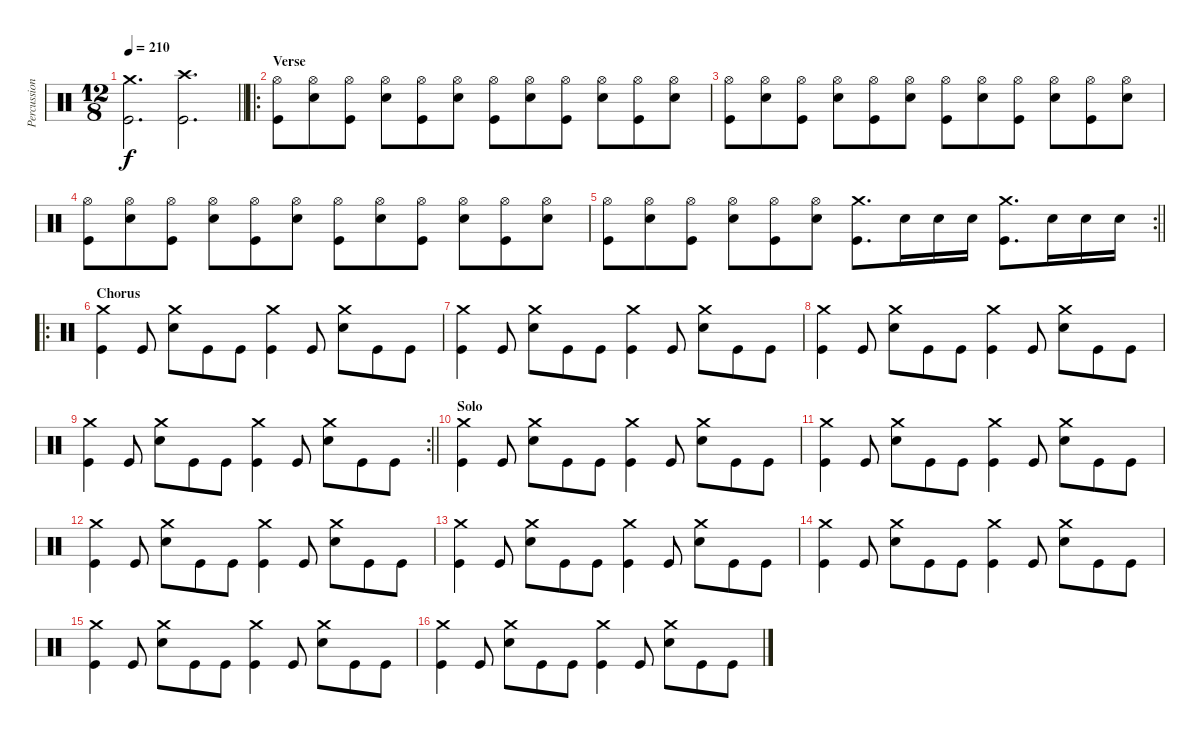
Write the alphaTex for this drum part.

\track ("Percussion" "Percussion") {instrument percussion}
\staff {score}
\articulation defaults
\ts (12 8)
\tempo 210
\clef neutral
\barLineRight lightlight
\ks c
("Crash medium (hit)" "Kick (hit)").2{d dy f} ("Crash high (hit)" "Kick (hit)").2{d} |
\ro
\section ("" "Verse")
("Hi-Hat (open)" "Kick (hit)").8 ("Hi-Hat (open)" "Snare (hit) 2").8 ("Hi-Hat (open)" "Kick (hit)").8 ("Hi-Hat (open)" "Snare (hit) 2").8 ("Hi-Hat (open)" "Kick (hit)").8 ("Hi-Hat (open)" "Snare (hit) 2").8 ("Hi-Hat (open)" "Kick (hit)").8 ("Hi-Hat (open)" "Snare (hit) 2").8 ("Hi-Hat (open)" "Kick (hit)").8 ("Hi-Hat (open)" "Snare (hit) 2").8 ("Hi-Hat (open)" "Kick (hit)").8 ("Hi-Hat (open)" "Snare (hit) 2").8 |
("Hi-Hat (open)" "Kick (hit)").8 ("Hi-Hat (open)" "Snare (hit) 2").8 ("Hi-Hat (open)" "Kick (hit)").8 ("Hi-Hat (open)" "Snare (hit) 2").8 ("Hi-Hat (open)" "Kick (hit)").8 ("Hi-Hat (open)" "Snare (hit) 2").8 ("Hi-Hat (open)" "Kick (hit)").8 ("Hi-Hat (open)" "Snare (hit) 2").8 ("Hi-Hat (open)" "Kick (hit)").8 ("Hi-Hat (open)" "Snare (hit) 2").8 ("Hi-Hat (open)" "Kick (hit)").8 ("Hi-Hat (open)" "Snare (hit) 2").8 |
("Hi-Hat (open)" "Kick (hit)").8 ("Hi-Hat (open)" "Snare (hit) 2").8 ("Hi-Hat (open)" "Kick (hit)").8 ("Hi-Hat (open)" "Snare (hit) 2").8 ("Hi-Hat (open)" "Kick (hit)").8 ("Hi-Hat (open)" "Snare (hit) 2").8 ("Hi-Hat (open)" "Kick (hit)").8 ("Hi-Hat (open)" "Snare (hit) 2").8 ("Hi-Hat (open)" "Kick (hit)").8 ("Hi-Hat (open)" "Snare (hit) 2").8 ("Hi-Hat (open)" "Kick (hit)").8 ("Hi-Hat (open)" "Snare (hit) 2").8 |
\rc 2
\barLineRight lightlight
("Hi-Hat (open)" "Kick (hit)").8 ("Hi-Hat (open)" "Snare (hit) 2").8 ("Hi-Hat (open)" "Kick (hit)").8 ("Hi-Hat (open)" "Snare (hit) 2").8 ("Hi-Hat (open)" "Kick (hit)").8 ("Hi-Hat (open)" "Snare (hit) 2").8 ("Crash medium (hit)" "Kick (hit)").8{d} "Snare (hit) 2".16 "Snare (hit) 2".16 "Snare (hit) 2".16 ("Crash medium (hit)" "Kick (hit)").8{d} "Snare (hit) 2".16 "Snare (hit) 2".16 "Snare (hit) 2".16 |
\ro
\section ("" "Chorus")
("Crash medium (hit)" "Kick (hit)").4 "Kick (hit)".8 ("Crash medium (hit)" "Snare (hit) 2").8 "Kick (hit)".8 "Kick (hit)".8 ("Crash medium (hit)" "Kick (hit)").4 "Kick (hit)".8 ("Crash medium (hit)" "Snare (hit) 2").8 "Kick (hit)".8 "Kick (hit)".8 |
("Crash medium (hit)" "Kick (hit)").4 "Kick (hit)".8 ("Crash medium (hit)" "Snare (hit) 2").8 "Kick (hit)".8 "Kick (hit)".8 ("Crash medium (hit)" "Kick (hit)").4 "Kick (hit)".8 ("Crash medium (hit)" "Snare (hit) 2").8 "Kick (hit)".8 "Kick (hit)".8 |
("Crash medium (hit)" "Kick (hit)").4 "Kick (hit)".8 ("Crash medium (hit)" "Snare (hit) 2").8 "Kick (hit)".8 "Kick (hit)".8 ("Crash medium (hit)" "Kick (hit)").4 "Kick (hit)".8 ("Crash medium (hit)" "Snare (hit) 2").8 "Kick (hit)".8 "Kick (hit)".8 |
\rc 2
\barLineRight lightlight
("Crash medium (hit)" "Kick (hit)").4 "Kick (hit)".8 ("Crash medium (hit)" "Snare (hit) 2").8 "Kick (hit)".8 "Kick (hit)".8 ("Crash medium (hit)" "Kick (hit)").4 "Kick (hit)".8 ("Crash medium (hit)" "Snare (hit) 2").8 "Kick (hit)".8 "Kick (hit)".8 |
\section ("" "Solo")
("Crash medium (hit)" "Kick (hit)").4 "Kick (hit)".8 ("Crash medium (hit)" "Snare (hit) 2").8 "Kick (hit)".8 "Kick (hit)".8 ("Crash medium (hit)" "Kick (hit)").4 "Kick (hit)".8 ("Crash medium (hit)" "Snare (hit) 2").8 "Kick (hit)".8 "Kick (hit)".8 |
("Crash medium (hit)" "Kick (hit)").4 "Kick (hit)".8 ("Crash medium (hit)" "Snare (hit) 2").8 "Kick (hit)".8 "Kick (hit)".8 ("Crash medium (hit)" "Kick (hit)").4 "Kick (hit)".8 ("Crash medium (hit)" "Snare (hit) 2").8 "Kick (hit)".8 "Kick (hit)".8 |
("Crash medium (hit)" "Kick (hit)").4 "Kick (hit)".8 ("Crash medium (hit)" "Snare (hit) 2").8 "Kick (hit)".8 "Kick (hit)".8 ("Crash medium (hit)" "Kick (hit)").4 "Kick (hit)".8 ("Crash medium (hit)" "Snare (hit) 2").8 "Kick (hit)".8 "Kick (hit)".8 |
("Crash medium (hit)" "Kick (hit)").4 "Kick (hit)".8 ("Crash medium (hit)" "Snare (hit) 2").8 "Kick (hit)".8 "Kick (hit)".8 ("Crash medium (hit)" "Kick (hit)").4 "Kick (hit)".8 ("Crash medium (hit)" "Snare (hit) 2").8 "Kick (hit)".8 "Kick (hit)".8 |
("Crash medium (hit)" "Kick (hit)").4 "Kick (hit)".8 ("Crash medium (hit)" "Snare (hit) 2").8 "Kick (hit)".8 "Kick (hit)".8 ("Crash medium (hit)" "Kick (hit)").4 "Kick (hit)".8 ("Crash medium (hit)" "Snare (hit) 2").8 "Kick (hit)".8 "Kick (hit)".8 |
("Crash medium (hit)" "Kick (hit)").4 "Kick (hit)".8 ("Crash medium (hit)" "Snare (hit) 2").8 "Kick (hit)".8 "Kick (hit)".8 ("Crash medium (hit)" "Kick (hit)").4 "Kick (hit)".8 ("Crash medium (hit)" "Snare (hit) 2").8 "Kick (hit)".8 "Kick (hit)".8 |
("Crash medium (hit)" "Kick (hit)").4 "Kick (hit)".8 ("Crash medium (hit)" "Snare (hit) 2").8 "Kick (hit)".8 "Kick (hit)".8 ("Crash medium (hit)" "Kick (hit)").4 "Kick (hit)".8 ("Crash medium (hit)" "Snare (hit) 2").8 "Kick (hit)".8 "Kick (hit)".8
